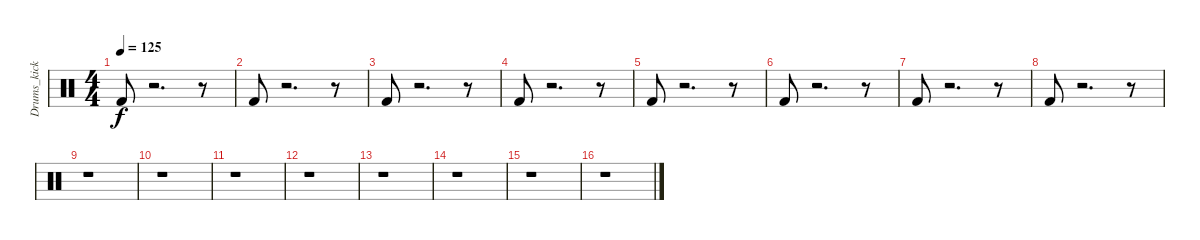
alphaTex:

\track ("Drums_kick" "Drums_kick") {instrument percussion}
\staff {score}
\articulation defaults
\ts (4 4)
\tempo 125
\clef neutral
\ks c "Kick (hit) 2".8{dy f}
r.2{d} r.8 |
"Kick (hit) 2".8 r.2{d} r.8 |
"Kick (hit) 2".8 r.2{d} r.8 |
"Kick (hit) 2".8 r.2{d} r.8 |
"Kick (hit) 2".8 r.2{d} r.8 |
"Kick (hit) 2".8 r.2{d} r.8 |
"Kick (hit) 2".8 r.2{d} r.8 |
"Kick (hit) 2".8 r.2{d} r.8 |
r.1 |
r.1 |
r.1 |
r.1 |
r.1 |
r.1 |
r.1 |
r.1
